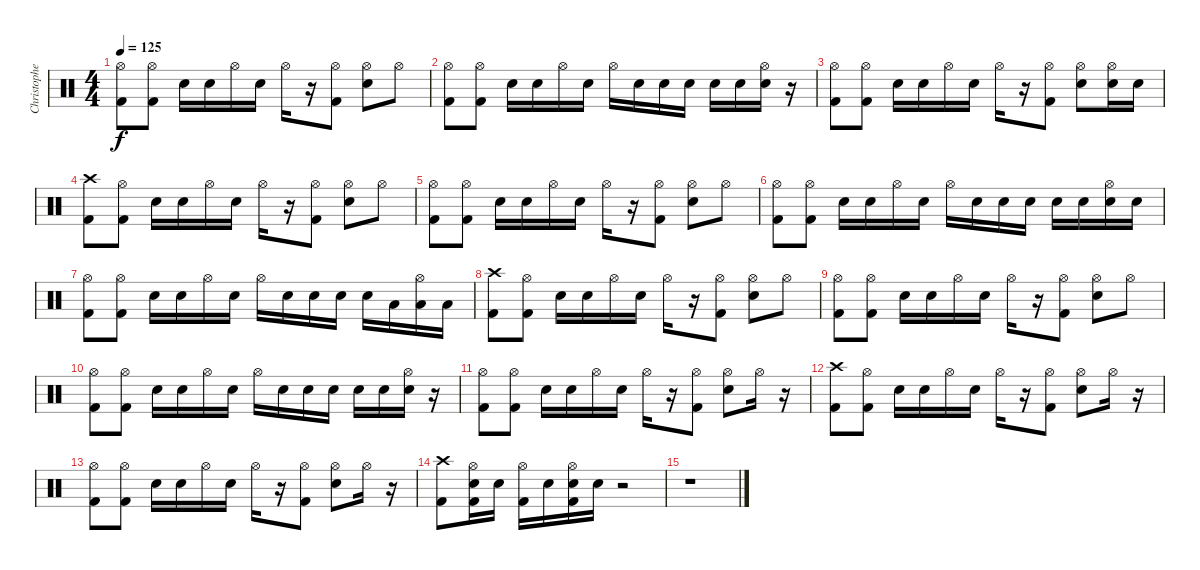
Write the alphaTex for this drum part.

\track ("Christopher - Drums" "Christophe") {instrument percussion}
\staff {score}
\articulation defaults
\ts (4 4)
\tempo 125
\clef neutral
\ks c
("Hi-Hat (open)" "Kick (hit) 2").8{dy f} ("Hi-Hat (open)" "Kick (hit) 2").8 "Electric Snare (hit)".16 "Electric Snare (hit)".16 "Hi-Hat (open)".16 "Electric Snare (hit)".16 "Hi-Hat (open)".16 r.16 ("Hi-Hat (open)" "Kick (hit) 2").8 ("Hi-Hat (open)" "Electric Snare (hit)").8 "Hi-Hat (open)".8 |
("Hi-Hat (open)" "Kick (hit) 2").8 ("Hi-Hat (open)" "Kick (hit) 2").8 "Electric Snare (hit)".16 "Electric Snare (hit)".16 "Hi-Hat (open)".16 "Electric Snare (hit)".16 "Hi-Hat (open)".16 "Electric Snare (hit)".16 "Electric Snare (hit)".16 "Electric Snare (hit)".16 "Electric Snare (hit)".16 "Electric Snare (hit)".16 ("Hi-Hat (open)" "Electric Snare (hit)").16 r.16 |
("Hi-Hat (open)" "Kick (hit) 2").8 ("Hi-Hat (open)" "Kick (hit) 2").8 "Electric Snare (hit)".16 "Electric Snare (hit)".16 "Hi-Hat (open)".16 "Electric Snare (hit)".16 "Hi-Hat (open)".16 r.16 ("Hi-Hat (open)" "Kick (hit) 2").8 ("Hi-Hat (open)" "Electric Snare (hit)").8 ("Hi-Hat (open)" "Electric Snare (hit)").16 "Electric Snare (hit)".16 |
("Crash high (hit)" "Kick (hit) 2").8 ("Hi-Hat (open)" "Kick (hit) 2").8 "Electric Snare (hit)".16 "Electric Snare (hit)".16 "Hi-Hat (open)".16 "Electric Snare (hit)".16 "Hi-Hat (open)".16 r.16 ("Hi-Hat (open)" "Kick (hit) 2").8 ("Hi-Hat (open)" "Electric Snare (hit)").8 "Hi-Hat (open)".8 |
("Hi-Hat (open)" "Kick (hit) 2").8 ("Hi-Hat (open)" "Kick (hit) 2").8 "Electric Snare (hit)".16 "Electric Snare (hit)".16 "Hi-Hat (open)".16 "Electric Snare (hit)".16 "Hi-Hat (open)".16 r.16 ("Hi-Hat (open)" "Kick (hit) 2").8 ("Hi-Hat (open)" "Electric Snare (hit)").8 "Hi-Hat (open)".8 |
("Hi-Hat (open)" "Kick (hit) 2").8 ("Hi-Hat (open)" "Kick (hit) 2").8 "Electric Snare (hit)".16 "Electric Snare (hit)".16 "Hi-Hat (open)".16 "Electric Snare (hit)".16 "Hi-Hat (open)".16 "Electric Snare (hit)".16 "Electric Snare (hit)".16 "Electric Snare (hit)".16 "Electric Snare (hit)".16 "Electric Snare (hit)".16 ("Hi-Hat (open)" "Electric Snare (hit)").16 "Electric Snare (hit)".16 |
("Hi-Hat (open)" "Kick (hit) 2").8 ("Hi-Hat (open)" "Kick (hit) 2").8 "Electric Snare (hit)".16 "Electric Snare (hit)".16 "Hi-Hat (open)".16 "Electric Snare (hit)".16 "Hi-Hat (open)".16 "Electric Snare (hit)".16 "Electric Snare (hit)".16 "Electric Snare (hit)".16 "Electric Snare (hit)".16 "Low Tom (hit)".16 ("Hi-Hat (open)" "Low Tom (hit)").16 "Low Tom (hit)".16 |
("Crash high (hit)" "Kick (hit) 2").8 ("Hi-Hat (open)" "Kick (hit) 2").8 "Electric Snare (hit)".16 "Electric Snare (hit)".16 "Hi-Hat (open)".16 "Electric Snare (hit)".16 "Hi-Hat (open)".16 r.16 ("Hi-Hat (open)" "Kick (hit) 2").8 ("Hi-Hat (open)" "Electric Snare (hit)").8 "Hi-Hat (open)".8 |
("Hi-Hat (open)" "Kick (hit) 2").8 ("Hi-Hat (open)" "Kick (hit) 2").8 "Electric Snare (hit)".16 "Electric Snare (hit)".16 "Hi-Hat (open)".16 "Electric Snare (hit)".16 "Hi-Hat (open)".16 r.16 ("Hi-Hat (open)" "Kick (hit) 2").8 ("Hi-Hat (open)" "Electric Snare (hit)").8 "Hi-Hat (open)".8 |
("Hi-Hat (open)" "Kick (hit) 2").8 ("Hi-Hat (open)" "Kick (hit) 2").8 "Electric Snare (hit)".16 "Electric Snare (hit)".16 "Hi-Hat (open)".16 "Electric Snare (hit)".16 "Hi-Hat (open)".16 "Electric Snare (hit)".16 "Electric Snare (hit)".16 "Electric Snare (hit)".16 "Electric Snare (hit)".16 "Electric Snare (hit)".16 ("Hi-Hat (open)" "Electric Snare (hit)").16 r.16 |
("Hi-Hat (open)" "Kick (hit) 2").8 ("Hi-Hat (open)" "Kick (hit) 2").8 "Electric Snare (hit)".16 "Electric Snare (hit)".16 "Hi-Hat (open)".16 "Electric Snare (hit)".16 "Hi-Hat (open)".16 r.16 ("Hi-Hat (open)" "Kick (hit) 2").8 ("Hi-Hat (open)" "Electric Snare (hit)").8 "Hi-Hat (open)".16 r.16 |
("Crash high (hit)" "Kick (hit) 2").8 ("Hi-Hat (open)" "Kick (hit) 2").8 "Electric Snare (hit)".16 "Electric Snare (hit)".16 "Hi-Hat (open)".16 "Electric Snare (hit)".16 "Hi-Hat (open)".16 r.16 ("Hi-Hat (open)" "Kick (hit) 2").8 ("Hi-Hat (open)" "Electric Snare (hit)").8 "Hi-Hat (open)".16 r.16 |
("Hi-Hat (open)" "Kick (hit) 2").8 ("Hi-Hat (open)" "Kick (hit) 2").8 "Electric Snare (hit)".16 "Electric Snare (hit)".16 "Hi-Hat (open)".16 "Electric Snare (hit)".16 "Hi-Hat (open)".16 r.16 ("Hi-Hat (open)" "Kick (hit) 2").8 ("Hi-Hat (open)" "Electric Snare (hit)").8 "Hi-Hat (open)".16 r.16 |
("Crash high (hit)" "Kick (hit) 2").8 ("Hi-Hat (open)" "Electric Snare (hit)" "Kick (hit) 2").16 "Electric Snare (hit)".16 ("Hi-Hat (open)" "Kick (hit) 2").16 "Electric Snare (hit)".16 ("Hi-Hat (open)" "Electric Snare (hit)" "Kick (hit) 2").16 "Electric Snare (hit)".16 r.2 |
r.1
